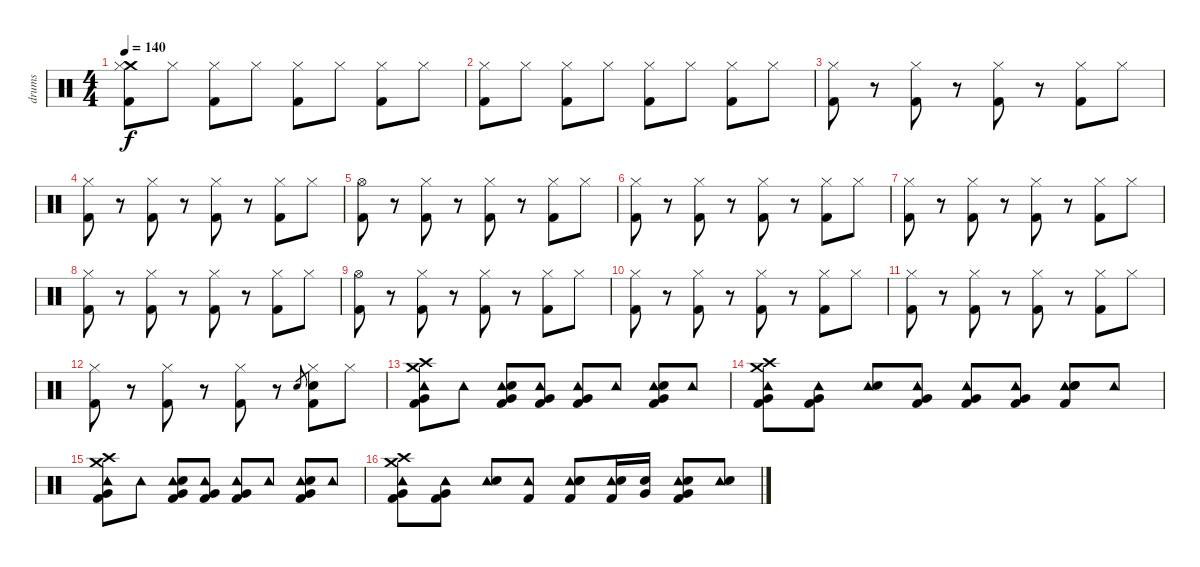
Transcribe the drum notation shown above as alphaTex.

\track ("drums" "drums") {instrument percussion}
\staff {score}
\articulation defaults
\ts (4 4)
\tempo 140
\clef neutral
\ks c
("Crash medium (hit)" "Hi-Hat (closed)" "Kick (hit) 2").8{dy f} "Hi-Hat (closed)".8 ("Hi-Hat (closed)" "Kick (hit) 2").8 "Hi-Hat (closed)".8 ("Hi-Hat (closed)" "Kick (hit) 2").8 "Hi-Hat (closed)".8 ("Hi-Hat (closed)" "Kick (hit) 2").8 "Hi-Hat (closed)".8 |
("Hi-Hat (closed)" "Kick (hit) 2").8 "Hi-Hat (closed)".8 ("Hi-Hat (closed)" "Kick (hit) 2").8 "Hi-Hat (closed)".8 ("Hi-Hat (closed)" "Kick (hit) 2").8 "Hi-Hat (closed)".8 ("Hi-Hat (closed)" "Kick (hit) 2").8 "Hi-Hat (closed)".8 |
("Hi-Hat (closed)" "Kick (hit) 2").8 r.8 ("Hi-Hat (closed)" "Kick (hit) 2").8 r.8 ("Hi-Hat (closed)" "Kick (hit) 2").8 r.8 ("Hi-Hat (closed)" "Kick (hit) 2").8 "Hi-Hat (closed)".8 |
("Hi-Hat (closed)" "Kick (hit) 2").8 r.8 ("Hi-Hat (closed)" "Kick (hit) 2").8 r.8 ("Hi-Hat (closed)" "Kick (hit) 2").8 r.8 ("Hi-Hat (closed)" "Kick (hit) 2").8 "Hi-Hat (closed)".8 |
("Hi-Hat (open)" "Kick (hit) 2").8 r.8 ("Hi-Hat (closed)" "Kick (hit) 2").8 r.8 ("Hi-Hat (closed)" "Kick (hit) 2").8 r.8 ("Hi-Hat (closed)" "Kick (hit) 2").8 "Hi-Hat (closed)".8 |
("Hi-Hat (closed)" "Kick (hit) 2").8 r.8 ("Hi-Hat (closed)" "Kick (hit) 2").8 r.8 ("Hi-Hat (closed)" "Kick (hit) 2").8 r.8 ("Hi-Hat (closed)" "Kick (hit) 2").8 "Hi-Hat (closed)".8 |
("Hi-Hat (closed)" "Kick (hit) 2").8 r.8 ("Hi-Hat (closed)" "Kick (hit) 2").8 r.8 ("Hi-Hat (closed)" "Kick (hit) 2").8 r.8 ("Hi-Hat (closed)" "Kick (hit) 2").8 "Hi-Hat (closed)".8 |
("Hi-Hat (closed)" "Kick (hit) 2").8 r.8 ("Hi-Hat (closed)" "Kick (hit) 2").8 r.8 ("Hi-Hat (closed)" "Kick (hit) 2").8 r.8 ("Hi-Hat (closed)" "Kick (hit) 2").8 "Hi-Hat (closed)".8 |
("Hi-Hat (open)" "Kick (hit) 2").8 r.8 ("Hi-Hat (closed)" "Kick (hit) 2").8 r.8 ("Hi-Hat (closed)" "Kick (hit) 2").8 r.8 ("Hi-Hat (closed)" "Kick (hit) 2").8 "Hi-Hat (closed)".8 |
("Hi-Hat (closed)" "Kick (hit) 2").8 r.8 ("Hi-Hat (closed)" "Kick (hit) 2").8 r.8 ("Hi-Hat (closed)" "Kick (hit) 2").8 r.8 ("Hi-Hat (closed)" "Kick (hit) 2").8 "Hi-Hat (closed)".8 |
("Hi-Hat (closed)" "Kick (hit) 2").8 r.8 ("Hi-Hat (closed)" "Kick (hit) 2").8 r.8 ("Hi-Hat (closed)" "Kick (hit) 2").8 r.8 ("Hi-Hat (closed)" "Kick (hit) 2").8 "Hi-Hat (closed)".8 |
("Hi-Hat (closed)" "Kick (hit) 2").8 r.8 ("Hi-Hat (closed)" "Kick (hit) 2").8 r.8 ("Hi-Hat (closed)" "Kick (hit) 2").8 r.8 "Snare (hit) 2".8{gr} ("Hi-Hat (closed)" "Snare (hit) 2" "Kick (hit) 2").8 "Hi-Hat (closed)".8 |
("Crash high (hit)" "Tambourine (hit)" "Crash medium (hit)" "Very Low Tom (hit)" "Kick (hit) 2").8 "Tambourine (hit)".8 ("Tambourine (hit)" "Snare (hit) 2" "Very Low Tom (hit)" "Kick (hit) 2").8 ("Tambourine (hit)" "Very Low Tom (hit)" "Kick (hit) 2").8 ("Tambourine (hit)" "Very Low Tom (hit)" "Kick (hit) 2").8 "Tambourine (hit)".8 ("Tambourine (hit)" "Snare (hit) 2" "Very Low Tom (hit)" "Kick (hit) 2").8 "Tambourine (hit)".8 |
("Crash high (hit)" "Tambourine (hit)" "Crash medium (hit)" "Very Low Tom (hit)" "Kick (hit) 2").8 ("Tambourine (hit)" "Very Low Tom (hit)" "Kick (hit) 2").8 ("Tambourine (hit)" "Snare (hit) 2").8 ("Tambourine (hit)" "Very Low Tom (hit)" "Kick (hit) 2").8 ("Tambourine (hit)" "Very Low Tom (hit)" "Kick (hit) 2").8 ("Tambourine (hit)" "Very Low Tom (hit)" "Kick (hit) 2").8 ("Tambourine (hit)" "Snare (hit) 2" "Snare (hit) 2" "Kick (hit) 2").8 "Tambourine (hit)".8 |
("Crash high (hit)" "Tambourine (hit)" "Crash medium (hit)" "Very Low Tom (hit)" "Kick (hit) 2").8 "Tambourine (hit)".8 ("Tambourine (hit)" "Snare (hit) 2" "Very Low Tom (hit)" "Kick (hit) 2").8 ("Tambourine (hit)" "Very Low Tom (hit)" "Kick (hit) 2").8 ("Tambourine (hit)" "Very Low Tom (hit)" "Kick (hit) 2").8 "Tambourine (hit)".8 ("Tambourine (hit)" "Snare (hit) 2" "Very Low Tom (hit)" "Kick (hit) 2").8 "Tambourine (hit)".8 |
("Crash high (hit)" "Tambourine (hit)" "Crash medium (hit)" "Very Low Tom (hit)" "Kick (hit) 2").8 ("Tambourine (hit)" "Very Low Tom (hit)" "Kick (hit) 2").8 ("Tambourine (hit)" "Snare (hit) 2").8 ("Tambourine (hit)" "Kick (hit) 2").8 ("Tambourine (hit)" "Snare (hit) 2" "Snare (hit) 2" "Kick (hit) 2").8 ("Tambourine (hit)" "Snare (hit) 2" "Kick (hit) 2").16 ("Snare (hit) 2" "Very Low Tom (hit)").16 ("Tambourine (hit)" "Snare (hit) 2" "Very Low Tom (hit)" "Kick (hit) 2").8 ("Tambourine (hit)" "Snare (hit) 2").8
